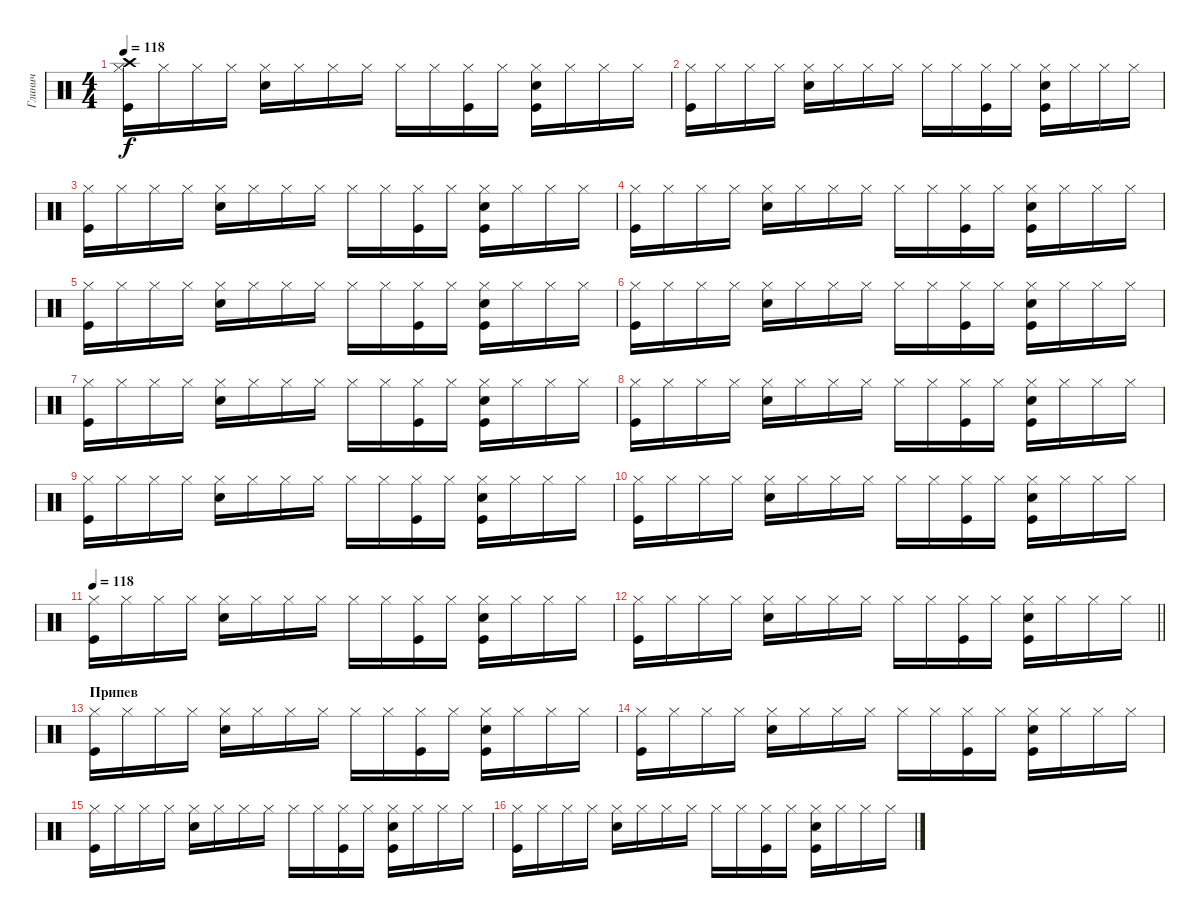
\track ("Глинич" "Глинич") {instrument percussion}
\staff {score}
\articulation defaults
\ts (4 4)
\tempo 118
\clef neutral
\ks c
("Hi-Hat (closed)" "Kick (hit)" "Crash high (hit)").16{dy f} "Hi-Hat (closed)".16 "Hi-Hat (closed)".16 "Hi-Hat (closed)".16 ("Hi-Hat (closed)" "Snare (hit) 2").16 "Hi-Hat (closed)".16 "Hi-Hat (closed)".16 "Hi-Hat (closed)".16 "Hi-Hat (closed)".16 "Hi-Hat (closed)".16 ("Hi-Hat (closed)" "Kick (hit)").16 "Hi-Hat (closed)".16 ("Hi-Hat (closed)" "Snare (hit) 2" "Kick (hit)").16 "Hi-Hat (closed)".16 "Hi-Hat (closed)".16 "Hi-Hat (closed)".16 |
("Hi-Hat (closed)" "Kick (hit)").16 "Hi-Hat (closed)".16 "Hi-Hat (closed)".16 "Hi-Hat (closed)".16 ("Hi-Hat (closed)" "Snare (hit) 2").16 "Hi-Hat (closed)".16 "Hi-Hat (closed)".16 "Hi-Hat (closed)".16 "Hi-Hat (closed)".16 "Hi-Hat (closed)".16 ("Hi-Hat (closed)" "Kick (hit)").16 "Hi-Hat (closed)".16 ("Hi-Hat (closed)" "Snare (hit) 2" "Kick (hit)").16 "Hi-Hat (closed)".16 "Hi-Hat (closed)".16 "Hi-Hat (closed)".16 |
("Hi-Hat (closed)" "Kick (hit)").16 "Hi-Hat (closed)".16 "Hi-Hat (closed)".16 "Hi-Hat (closed)".16 ("Hi-Hat (closed)" "Snare (hit) 2").16 "Hi-Hat (closed)".16 "Hi-Hat (closed)".16 "Hi-Hat (closed)".16 "Hi-Hat (closed)".16 "Hi-Hat (closed)".16 ("Hi-Hat (closed)" "Kick (hit)").16 "Hi-Hat (closed)".16 ("Hi-Hat (closed)" "Snare (hit) 2" "Kick (hit)").16 "Hi-Hat (closed)".16 "Hi-Hat (closed)".16 "Hi-Hat (closed)".16 |
("Hi-Hat (closed)" "Kick (hit)").16 "Hi-Hat (closed)".16 "Hi-Hat (closed)".16 "Hi-Hat (closed)".16 ("Hi-Hat (closed)" "Snare (hit) 2").16 "Hi-Hat (closed)".16 "Hi-Hat (closed)".16 "Hi-Hat (closed)".16 "Hi-Hat (closed)".16 "Hi-Hat (closed)".16 ("Hi-Hat (closed)" "Kick (hit)").16 "Hi-Hat (closed)".16 ("Hi-Hat (closed)" "Snare (hit) 2" "Kick (hit)").16 "Hi-Hat (closed)".16 "Hi-Hat (closed)".16 "Hi-Hat (closed)".16 |
("Hi-Hat (closed)" "Kick (hit)").16 "Hi-Hat (closed)".16 "Hi-Hat (closed)".16 "Hi-Hat (closed)".16 ("Hi-Hat (closed)" "Snare (hit) 2").16 "Hi-Hat (closed)".16 "Hi-Hat (closed)".16 "Hi-Hat (closed)".16 "Hi-Hat (closed)".16 "Hi-Hat (closed)".16 ("Hi-Hat (closed)" "Kick (hit)").16 "Hi-Hat (closed)".16 ("Hi-Hat (closed)" "Snare (hit) 2" "Kick (hit)").16 "Hi-Hat (closed)".16 "Hi-Hat (closed)".16 "Hi-Hat (closed)".16 |
("Hi-Hat (closed)" "Kick (hit)").16 "Hi-Hat (closed)".16 "Hi-Hat (closed)".16 "Hi-Hat (closed)".16 ("Hi-Hat (closed)" "Snare (hit) 2").16 "Hi-Hat (closed)".16 "Hi-Hat (closed)".16 "Hi-Hat (closed)".16 "Hi-Hat (closed)".16 "Hi-Hat (closed)".16 ("Hi-Hat (closed)" "Kick (hit)").16 "Hi-Hat (closed)".16 ("Hi-Hat (closed)" "Snare (hit) 2" "Kick (hit)").16 "Hi-Hat (closed)".16 "Hi-Hat (closed)".16 "Hi-Hat (closed)".16 |
("Hi-Hat (closed)" "Kick (hit)").16 "Hi-Hat (closed)".16 "Hi-Hat (closed)".16 "Hi-Hat (closed)".16 ("Hi-Hat (closed)" "Snare (hit) 2").16 "Hi-Hat (closed)".16 "Hi-Hat (closed)".16 "Hi-Hat (closed)".16 "Hi-Hat (closed)".16 "Hi-Hat (closed)".16 ("Hi-Hat (closed)" "Kick (hit)").16 "Hi-Hat (closed)".16 ("Hi-Hat (closed)" "Snare (hit) 2" "Kick (hit)").16 "Hi-Hat (closed)".16 "Hi-Hat (closed)".16 "Hi-Hat (closed)".16 |
("Hi-Hat (closed)" "Kick (hit)").16 "Hi-Hat (closed)".16 "Hi-Hat (closed)".16 "Hi-Hat (closed)".16 ("Hi-Hat (closed)" "Snare (hit) 2").16 "Hi-Hat (closed)".16 "Hi-Hat (closed)".16 "Hi-Hat (closed)".16 "Hi-Hat (closed)".16 "Hi-Hat (closed)".16 ("Hi-Hat (closed)" "Kick (hit)").16 "Hi-Hat (closed)".16 ("Hi-Hat (closed)" "Snare (hit) 2" "Kick (hit)").16 "Hi-Hat (closed)".16 "Hi-Hat (closed)".16 "Hi-Hat (closed)".16 |
("Hi-Hat (closed)" "Kick (hit)").16 "Hi-Hat (closed)".16 "Hi-Hat (closed)".16 "Hi-Hat (closed)".16 ("Hi-Hat (closed)" "Snare (hit) 2").16 "Hi-Hat (closed)".16 "Hi-Hat (closed)".16 "Hi-Hat (closed)".16 "Hi-Hat (closed)".16 "Hi-Hat (closed)".16 ("Hi-Hat (closed)" "Kick (hit)").16 "Hi-Hat (closed)".16 ("Hi-Hat (closed)" "Snare (hit) 2" "Kick (hit)").16 "Hi-Hat (closed)".16 "Hi-Hat (closed)".16 "Hi-Hat (closed)".16 |
("Hi-Hat (closed)" "Kick (hit)").16 "Hi-Hat (closed)".16 "Hi-Hat (closed)".16 "Hi-Hat (closed)".16 ("Hi-Hat (closed)" "Snare (hit) 2").16 "Hi-Hat (closed)".16 "Hi-Hat (closed)".16 "Hi-Hat (closed)".16 "Hi-Hat (closed)".16 "Hi-Hat (closed)".16 ("Hi-Hat (closed)" "Kick (hit)").16 "Hi-Hat (closed)".16 ("Hi-Hat (closed)" "Snare (hit) 2" "Kick (hit)").16 "Hi-Hat (closed)".16 "Hi-Hat (closed)".16 "Hi-Hat (closed)".16 |
\tempo 118
("Hi-Hat (closed)" "Kick (hit)").16 "Hi-Hat (closed)".16 "Hi-Hat (closed)".16 "Hi-Hat (closed)".16 ("Hi-Hat (closed)" "Snare (hit) 2").16 "Hi-Hat (closed)".16 "Hi-Hat (closed)".16 "Hi-Hat (closed)".16 "Hi-Hat (closed)".16 "Hi-Hat (closed)".16 ("Hi-Hat (closed)" "Kick (hit)").16 "Hi-Hat (closed)".16 ("Hi-Hat (closed)" "Snare (hit) 2" "Kick (hit)").16 "Hi-Hat (closed)".16 "Hi-Hat (closed)".16 "Hi-Hat (closed)".16 |
\barLineRight lightlight
("Hi-Hat (closed)" "Kick (hit)").16 "Hi-Hat (closed)".16 "Hi-Hat (closed)".16 "Hi-Hat (closed)".16 ("Hi-Hat (closed)" "Snare (hit) 2").16 "Hi-Hat (closed)".16 "Hi-Hat (closed)".16 "Hi-Hat (closed)".16 "Hi-Hat (closed)".16 "Hi-Hat (closed)".16 ("Hi-Hat (closed)" "Kick (hit)").16 "Hi-Hat (closed)".16 ("Hi-Hat (closed)" "Snare (hit) 2" "Kick (hit)").16 "Hi-Hat (closed)".16 "Hi-Hat (closed)".16 "Hi-Hat (closed)".16 |
\section ("" "Припев")
("Hi-Hat (closed)" "Kick (hit)").16 "Hi-Hat (closed)".16 "Hi-Hat (closed)".16 "Hi-Hat (closed)".16 ("Hi-Hat (closed)" "Snare (hit) 2").16 "Hi-Hat (closed)".16 "Hi-Hat (closed)".16 "Hi-Hat (closed)".16 "Hi-Hat (closed)".16 "Hi-Hat (closed)".16 ("Hi-Hat (closed)" "Kick (hit)").16 "Hi-Hat (closed)".16 ("Hi-Hat (closed)" "Snare (hit) 2" "Kick (hit)").16 "Hi-Hat (closed)".16 "Hi-Hat (closed)".16 "Hi-Hat (closed)".16 |
("Hi-Hat (closed)" "Kick (hit)").16 "Hi-Hat (closed)".16 "Hi-Hat (closed)".16 "Hi-Hat (closed)".16 ("Hi-Hat (closed)" "Snare (hit) 2").16 "Hi-Hat (closed)".16 "Hi-Hat (closed)".16 "Hi-Hat (closed)".16 "Hi-Hat (closed)".16 "Hi-Hat (closed)".16 ("Hi-Hat (closed)" "Kick (hit)").16 "Hi-Hat (closed)".16 ("Hi-Hat (closed)" "Snare (hit) 2" "Kick (hit)").16 "Hi-Hat (closed)".16 "Hi-Hat (closed)".16 "Hi-Hat (closed)".16 |
("Hi-Hat (closed)" "Kick (hit)").16 "Hi-Hat (closed)".16 "Hi-Hat (closed)".16 "Hi-Hat (closed)".16 ("Hi-Hat (closed)" "Snare (hit) 2").16 "Hi-Hat (closed)".16 "Hi-Hat (closed)".16 "Hi-Hat (closed)".16 "Hi-Hat (closed)".16 "Hi-Hat (closed)".16 ("Hi-Hat (closed)" "Kick (hit)").16 "Hi-Hat (closed)".16 ("Hi-Hat (closed)" "Snare (hit) 2" "Kick (hit)").16 "Hi-Hat (closed)".16 "Hi-Hat (closed)".16 "Hi-Hat (closed)".16 |
("Hi-Hat (closed)" "Kick (hit)").16 "Hi-Hat (closed)".16 "Hi-Hat (closed)".16 "Hi-Hat (closed)".16 ("Hi-Hat (closed)" "Snare (hit) 2").16 "Hi-Hat (closed)".16 "Hi-Hat (closed)".16 "Hi-Hat (closed)".16 "Hi-Hat (closed)".16 "Hi-Hat (closed)".16 ("Hi-Hat (closed)" "Kick (hit)").16 "Hi-Hat (closed)".16 ("Hi-Hat (closed)" "Snare (hit) 2" "Kick (hit)").16 "Hi-Hat (closed)".16 "Hi-Hat (closed)".16 "Hi-Hat (closed)".16
